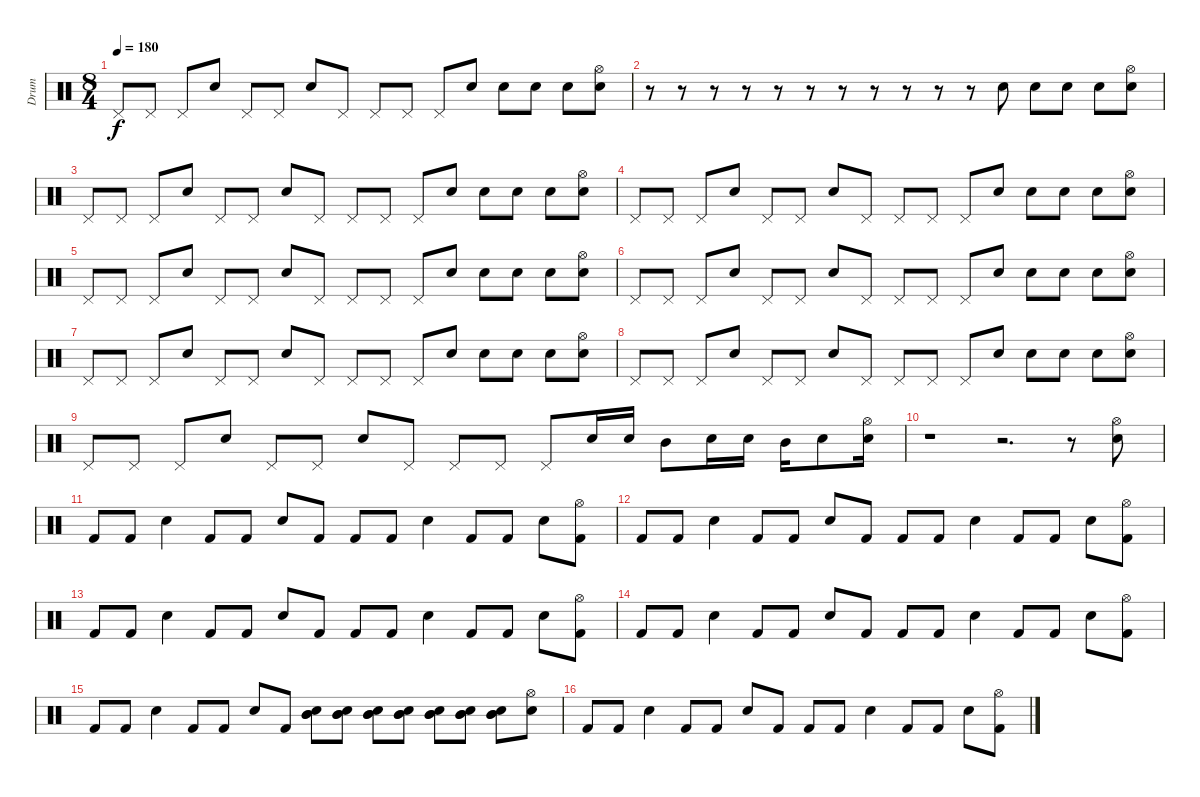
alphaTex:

\track ("Drum" "Drum") {instrument percussion}
\staff {score}
\articulation defaults
\ts (8 4)
\tempo 180
\clef neutral
\ks c "Pedal Hi-Hat (hit)".8{dy f} "Pedal Hi-Hat (hit)".8 "Pedal Hi-Hat (hit)".8 "Electric Snare (hit)".8 "Pedal Hi-Hat (hit)".8 "Pedal Hi-Hat (hit)".8 "Electric Snare (hit)".8 "Pedal Hi-Hat (hit)".8 "Pedal Hi-Hat (hit)".8 "Pedal Hi-Hat (hit)".8 "Pedal Hi-Hat (hit)".8 "Electric Snare (hit)".8 "Electric Snare (hit)".8 "Electric Snare (hit)".8 "Electric Snare (hit)".8
("Electric Snare (hit)" "Hi-Hat (open)").8 |
r.8 r.8 r.8 r.8 r.8 r.8 r.8 r.8 r.8 r.8 r.8 "Electric Snare (hit)".8 "Electric Snare (hit)".8 "Electric Snare (hit)".8 "Electric Snare (hit)".8 ("Hi-Hat (open)" "Electric Snare (hit)").8 |
"Pedal Hi-Hat (hit)".8 "Pedal Hi-Hat (hit)".8 "Pedal Hi-Hat (hit)".8 "Electric Snare (hit)".8 "Pedal Hi-Hat (hit)".8 "Pedal Hi-Hat (hit)".8 "Electric Snare (hit)".8 "Pedal Hi-Hat (hit)".8 "Pedal Hi-Hat (hit)".8 "Pedal Hi-Hat (hit)".8 "Pedal Hi-Hat (hit)".8 "Electric Snare (hit)".8 "Electric Snare (hit)".8 "Electric Snare (hit)".8 "Electric Snare (hit)".8 ("Hi-Hat (open)" "Electric Snare (hit)").8 |
"Pedal Hi-Hat (hit)".8 "Pedal Hi-Hat (hit)".8 "Pedal Hi-Hat (hit)".8 "Electric Snare (hit)".8 "Pedal Hi-Hat (hit)".8 "Pedal Hi-Hat (hit)".8 "Electric Snare (hit)".8 "Pedal Hi-Hat (hit)".8 "Pedal Hi-Hat (hit)".8 "Pedal Hi-Hat (hit)".8 "Pedal Hi-Hat (hit)".8 "Electric Snare (hit)".8 "Electric Snare (hit)".8 "Electric Snare (hit)".8 "Electric Snare (hit)".8 ("Hi-Hat (open)" "Electric Snare (hit)").8 |
"Pedal Hi-Hat (hit)".8 "Pedal Hi-Hat (hit)".8 "Pedal Hi-Hat (hit)".8 "Electric Snare (hit)".8 "Pedal Hi-Hat (hit)".8 "Pedal Hi-Hat (hit)".8 "Electric Snare (hit)".8 "Pedal Hi-Hat (hit)".8 "Pedal Hi-Hat (hit)".8 "Pedal Hi-Hat (hit)".8 "Pedal Hi-Hat (hit)".8 "Electric Snare (hit)".8 "Electric Snare (hit)".8 "Electric Snare (hit)".8 "Electric Snare (hit)".8 ("Hi-Hat (open)" "Electric Snare (hit)").8 |
"Pedal Hi-Hat (hit)".8 "Pedal Hi-Hat (hit)".8 "Pedal Hi-Hat (hit)".8 "Electric Snare (hit)".8 "Pedal Hi-Hat (hit)".8 "Pedal Hi-Hat (hit)".8 "Electric Snare (hit)".8 "Pedal Hi-Hat (hit)".8 "Pedal Hi-Hat (hit)".8 "Pedal Hi-Hat (hit)".8 "Pedal Hi-Hat (hit)".8 "Electric Snare (hit)".8 "Electric Snare (hit)".8 "Electric Snare (hit)".8 "Electric Snare (hit)".8 ("Hi-Hat (open)" "Electric Snare (hit)").8 |
"Pedal Hi-Hat (hit)".8 "Pedal Hi-Hat (hit)".8 "Pedal Hi-Hat (hit)".8 "Electric Snare (hit)".8 "Pedal Hi-Hat (hit)".8 "Pedal Hi-Hat (hit)".8 "Electric Snare (hit)".8 "Pedal Hi-Hat (hit)".8 "Pedal Hi-Hat (hit)".8 "Pedal Hi-Hat (hit)".8 "Pedal Hi-Hat (hit)".8 "Electric Snare (hit)".8 "Electric Snare (hit)".8 "Electric Snare (hit)".8 "Electric Snare (hit)".8 ("Hi-Hat (open)" "Electric Snare (hit)").8 |
"Pedal Hi-Hat (hit)".8 "Pedal Hi-Hat (hit)".8 "Pedal Hi-Hat (hit)".8 "Electric Snare (hit)".8 "Pedal Hi-Hat (hit)".8 "Pedal Hi-Hat (hit)".8 "Electric Snare (hit)".8 "Pedal Hi-Hat (hit)".8 "Pedal Hi-Hat (hit)".8 "Pedal Hi-Hat (hit)".8 "Pedal Hi-Hat (hit)".8 "Electric Snare (hit)".8 "Electric Snare (hit)".8 "Electric Snare (hit)".8 "Electric Snare (hit)".8 ("Hi-Hat (open)" "Electric Snare (hit)").8 |
"Pedal Hi-Hat (hit)".8 "Pedal Hi-Hat (hit)".8 "Pedal Hi-Hat (hit)".8 "Electric Snare (hit)".8 "Pedal Hi-Hat (hit)".8 "Pedal Hi-Hat (hit)".8 "Electric Snare (hit)".8 "Pedal Hi-Hat (hit)".8 "Pedal Hi-Hat (hit)".8 "Pedal Hi-Hat (hit)".8 "Pedal Hi-Hat (hit)".8 "Electric Snare (hit)".16 "Electric Snare (hit)".16 "Mid Tom (hit)".8 "Electric Snare (hit)".16 "Electric Snare (hit)".16 "Mid Tom (hit)".16 "Electric Snare (hit)".8 ("Hi-Hat (open)" "Electric Snare (hit)").16 |
r.1 r.2{d} r.8 ("Electric Snare (hit)" "Hi-Hat (open)").8 |
"Kick (hit) 2".8 "Kick (hit) 2".8 "Electric Snare (hit)".4 "Kick (hit) 2".8 "Kick (hit) 2".8 "Electric Snare (hit)".8 "Kick (hit) 2".8 "Kick (hit) 2".8 "Kick (hit) 2".8 "Electric Snare (hit)".4 "Kick (hit) 2".8 "Kick (hit) 2".8 "Electric Snare (hit)".8 ("Kick (hit) 2" "Hi-Hat (open)").8 |
"Kick (hit) 2".8 "Kick (hit) 2".8 "Electric Snare (hit)".4 "Kick (hit) 2".8 "Kick (hit) 2".8 "Electric Snare (hit)".8 "Kick (hit) 2".8 "Kick (hit) 2".8 "Kick (hit) 2".8 "Electric Snare (hit)".4 "Kick (hit) 2".8 "Kick (hit) 2".8 "Electric Snare (hit)".8 ("Kick (hit) 2" "Hi-Hat (open)").8 |
"Kick (hit) 2".8 "Kick (hit) 2".8 "Electric Snare (hit)".4 "Kick (hit) 2".8 "Kick (hit) 2".8 "Electric Snare (hit)".8 "Kick (hit) 2".8 "Kick (hit) 2".8 "Kick (hit) 2".8 "Electric Snare (hit)".4 "Kick (hit) 2".8 "Kick (hit) 2".8 "Electric Snare (hit)".8 ("Kick (hit) 2" "Hi-Hat (open)").8 |
"Kick (hit) 2".8 "Kick (hit) 2".8 "Electric Snare (hit)".4 "Kick (hit) 2".8 "Kick (hit) 2".8 "Electric Snare (hit)".8 "Kick (hit) 2".8 "Kick (hit) 2".8 "Kick (hit) 2".8 "Electric Snare (hit)".4 "Kick (hit) 2".8 "Kick (hit) 2".8 "Electric Snare (hit)".8 ("Kick (hit) 2" "Hi-Hat (open)").8 |
"Kick (hit) 2".8 "Kick (hit) 2".8 "Electric Snare (hit)".4 "Kick (hit) 2".8 "Kick (hit) 2".8 "Electric Snare (hit)".8 "Kick (hit) 2".8 ("Electric Snare (hit)" "Mid Tom (hit)" "Mid Tom (hit)").8 ("Electric Snare (hit)" "Mid Tom (hit)" "Mid Tom (hit)").8 ("Electric Snare (hit)" "Mid Tom (hit)" "Mid Tom (hit)").8 ("Electric Snare (hit)" "Mid Tom (hit)" "Mid Tom (hit)").8 ("Electric Snare (hit)" "Mid Tom (hit)" "Mid Tom (hit)").8 ("Electric Snare (hit)" "Mid Tom (hit)" "Mid Tom (hit)").8 ("Electric Snare (hit)" "Mid Tom (hit)" "Mid Tom (hit)").8 ("Electric Snare (hit)" "Hi-Hat (open)").8 |
"Kick (hit) 2".8 "Kick (hit) 2".8 "Electric Snare (hit)".4 "Kick (hit) 2".8 "Kick (hit) 2".8 "Electric Snare (hit)".8 "Kick (hit) 2".8 "Kick (hit) 2".8 "Kick (hit) 2".8 "Electric Snare (hit)".4 "Kick (hit) 2".8 "Kick (hit) 2".8 "Electric Snare (hit)".8 ("Kick (hit) 2" "Hi-Hat (open)").8
